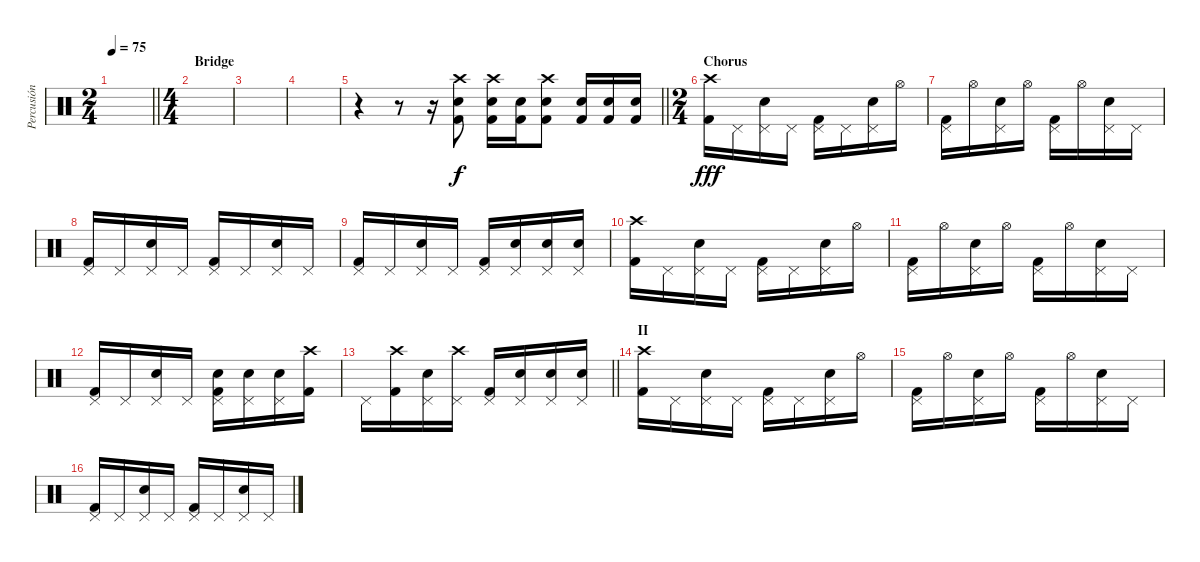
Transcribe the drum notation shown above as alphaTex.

\track ("Percusión" "Percusión") {instrument percussion}
\staff {score}
\articulation defaults
\ts (2 4)
\tempo 75
\clef neutral
\barLineRight lightlight
\ks c
|
\ts (4 4)
\section ("" "Bridge")
|
|
|
\barLineRight lightlight
r.4 r.8 r.16 ("Crash high (hit)" "Snare (hit) 2" "Kick (hit) 2").8{dy f} ("Crash high (hit)" "Snare (hit) 2" "Kick (hit) 2").16 ("Snare (hit) 2" "Kick (hit) 2").16 ("Crash high (hit)" "Snare (hit) 2" "Kick (hit) 2").8 ("Snare (hit) 2" "Kick (hit) 2").16 ("Snare (hit) 2" "Kick (hit) 2").16 ("Snare (hit) 2" "Kick (hit) 2").16 |
\ts (2 4)
\section ("" "Chorus")
("Crash high (hit)" "Kick (hit) 2").16{dy fff} "Pedal Hi-Hat (hit)".16 ("Pedal Hi-Hat (hit)" "Snare (hit) 2").16 "Pedal Hi-Hat (hit)".16 ("Pedal Hi-Hat (hit)" "Kick (hit) 2").16 "Pedal Hi-Hat (hit)".16 ("Pedal Hi-Hat (hit)" "Snare (hit) 2").16 "Hi-Hat (open)".16 |
("Pedal Hi-Hat (hit)" "Kick (hit) 2").16 "Hi-Hat (open)".16 ("Pedal Hi-Hat (hit)" "Snare (hit) 2").16 "Hi-Hat (open)".16 ("Pedal Hi-Hat (hit)" "Kick (hit) 2").16 "Hi-Hat (open)".16 ("Pedal Hi-Hat (hit)" "Snare (hit) 2").16 "Pedal Hi-Hat (hit)".16 |
("Pedal Hi-Hat (hit)" "Kick (hit) 2").16 "Pedal Hi-Hat (hit)".16 ("Pedal Hi-Hat (hit)" "Snare (hit) 2").16 "Pedal Hi-Hat (hit)".16 ("Pedal Hi-Hat (hit)" "Kick (hit) 2").16 "Pedal Hi-Hat (hit)".16 ("Pedal Hi-Hat (hit)" "Snare (hit) 2").16 "Pedal Hi-Hat (hit)".16 |
("Pedal Hi-Hat (hit)" "Kick (hit) 2").16 "Pedal Hi-Hat (hit)".16 ("Pedal Hi-Hat (hit)" "Snare (hit) 2").16 "Pedal Hi-Hat (hit)".16 ("Pedal Hi-Hat (hit)" "Kick (hit) 2").16 ("Pedal Hi-Hat (hit)" "Snare (hit) 2").16 ("Pedal Hi-Hat (hit)" "Snare (hit) 2").16 ("Pedal Hi-Hat (hit)" "Snare (hit) 2").16 |
("Crash high (hit)" "Kick (hit) 2").16 "Pedal Hi-Hat (hit)".16 ("Pedal Hi-Hat (hit)" "Snare (hit) 2").16 "Pedal Hi-Hat (hit)".16 ("Pedal Hi-Hat (hit)" "Kick (hit) 2").16 "Pedal Hi-Hat (hit)".16 ("Pedal Hi-Hat (hit)" "Snare (hit) 2").16 "Hi-Hat (open)".16 |
("Pedal Hi-Hat (hit)" "Kick (hit) 2").16 "Hi-Hat (open)".16 ("Pedal Hi-Hat (hit)" "Snare (hit) 2").16 "Hi-Hat (open)".16 ("Pedal Hi-Hat (hit)" "Kick (hit) 2").16 "Hi-Hat (open)".16 ("Pedal Hi-Hat (hit)" "Snare (hit) 2").16 "Pedal Hi-Hat (hit)".16 |
("Pedal Hi-Hat (hit)" "Kick (hit) 2").16 "Pedal Hi-Hat (hit)".16 ("Pedal Hi-Hat (hit)" "Snare (hit) 2").16 "Pedal Hi-Hat (hit)".16 ("Pedal Hi-Hat (hit)" "Snare (hit) 2" "Kick (hit) 2").16 ("Pedal Hi-Hat (hit)" "Snare (hit) 2").16 ("Pedal Hi-Hat (hit)" "Snare (hit) 2").16 ("Crash high (hit)" "Kick (hit) 2").16 |
\barLineRight lightlight "Pedal Hi-Hat (hit)".16
("Crash high (hit)" "Kick (hit) 2").16 ("Pedal Hi-Hat (hit)" "Snare (hit) 2").16 ("Crash high (hit)" "Pedal Hi-Hat (hit)").16 ("Pedal Hi-Hat (hit)" "Kick (hit) 2").16 ("Pedal Hi-Hat (hit)" "Snare (hit) 2").16 ("Pedal Hi-Hat (hit)" "Snare (hit) 2").16 ("Pedal Hi-Hat (hit)" "Snare (hit) 2").16 |
\section ("" "II")
("Crash high (hit)" "Kick (hit) 2").16 "Pedal Hi-Hat (hit)".16 ("Pedal Hi-Hat (hit)" "Snare (hit) 2").16 "Pedal Hi-Hat (hit)".16 ("Pedal Hi-Hat (hit)" "Kick (hit) 2").16 "Pedal Hi-Hat (hit)".16 ("Pedal Hi-Hat (hit)" "Snare (hit) 2").16 "Hi-Hat (open)".16 |
("Pedal Hi-Hat (hit)" "Kick (hit) 2").16 "Hi-Hat (open)".16 ("Pedal Hi-Hat (hit)" "Snare (hit) 2").16 "Hi-Hat (open)".16 ("Pedal Hi-Hat (hit)" "Kick (hit) 2").16 "Hi-Hat (open)".16 ("Pedal Hi-Hat (hit)" "Snare (hit) 2").16 "Pedal Hi-Hat (hit)".16 |
("Pedal Hi-Hat (hit)" "Kick (hit) 2").16 "Pedal Hi-Hat (hit)".16 ("Pedal Hi-Hat (hit)" "Snare (hit) 2").16 "Pedal Hi-Hat (hit)".16 ("Pedal Hi-Hat (hit)" "Kick (hit) 2").16 "Pedal Hi-Hat (hit)".16 ("Pedal Hi-Hat (hit)" "Snare (hit) 2").16 "Pedal Hi-Hat (hit)".16
